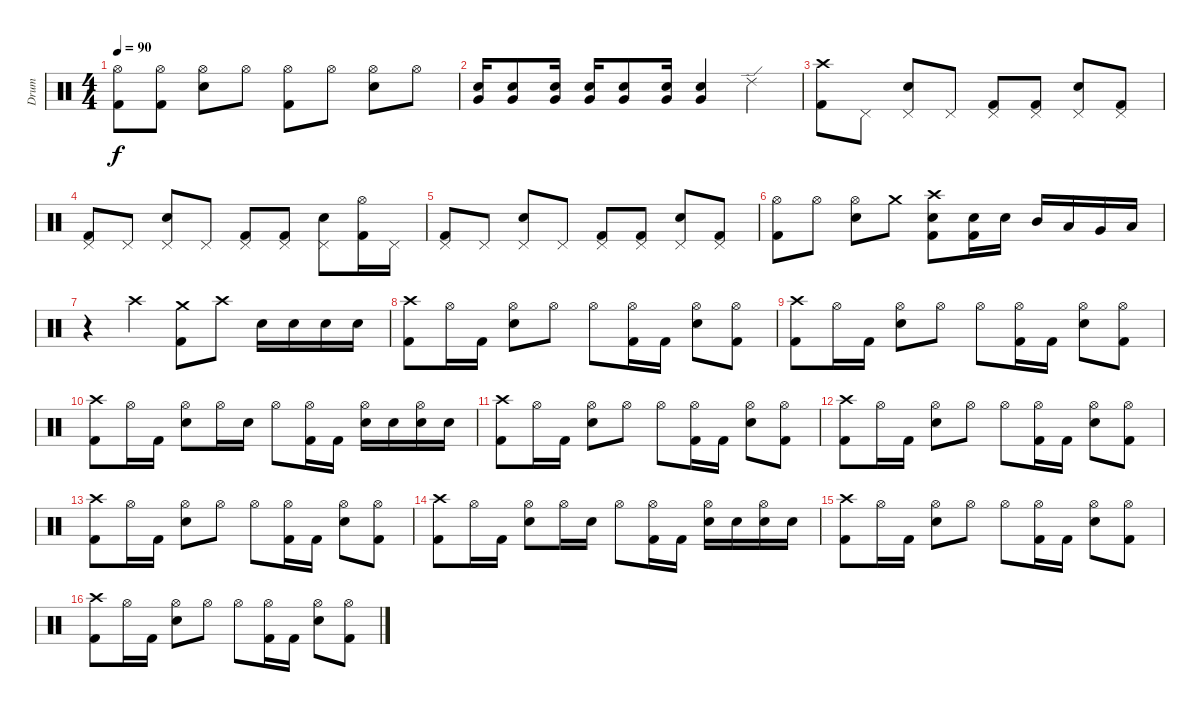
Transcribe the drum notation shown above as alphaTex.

\track ("Drum" "Drum") {instrument percussion}
\staff {score}
\articulation defaults
\ts (4 4)
\tempo 90
\clef neutral
\ks c
("Hi-Hat (open)" "Kick (hit) 2").8{dy f} ("Hi-Hat (open)" "Kick (hit) 2").8 ("Hi-Hat (open)" "Electric Snare (hit)").8 "Hi-Hat (open)".8 ("Hi-Hat (open)" "Kick (hit) 2").8 "Hi-Hat (open)".8 ("Hi-Hat (open)" "Electric Snare (hit)").8 "Hi-Hat (open)".8 |
("Electric Snare (hit)" "Very Low Tom (hit)").16 ("Electric Snare (hit)" "Very Low Tom (hit)").8 ("Electric Snare (hit)" "Very Low Tom (hit)").16 ("Electric Snare (hit)" "Very Low Tom (hit)").16 ("Electric Snare (hit)" "Very Low Tom (hit)").8 ("Electric Snare (hit)" "Very Low Tom (hit)").16 ("Electric Snare (hit)" "Very Low Tom (hit)").4 "Ride (edge) 2".4 |
\ks aminor
("Crash high (hit)" "Kick (hit) 2").8 "Pedal Hi-Hat (hit)".8 ("Pedal Hi-Hat (hit)" "Electric Snare (hit)").8 "Pedal Hi-Hat (hit)".8 ("Pedal Hi-Hat (hit)" "Kick (hit) 2").8 ("Pedal Hi-Hat (hit)" "Kick (hit) 2").8 ("Pedal Hi-Hat (hit)" "Electric Snare (hit)").8 ("Pedal Hi-Hat (hit)" "Kick (hit) 2").8 |
("Pedal Hi-Hat (hit)" "Kick (hit) 2").8 "Pedal Hi-Hat (hit)".8 ("Pedal Hi-Hat (hit)" "Electric Snare (hit)").8 "Pedal Hi-Hat (hit)".8 ("Pedal Hi-Hat (hit)" "Kick (hit) 2").8 ("Pedal Hi-Hat (hit)" "Kick (hit) 2").8 ("Pedal Hi-Hat (hit)" "Electric Snare (hit)").8 ("Hi-Hat (open)" "Kick (hit) 2").16 "Pedal Hi-Hat (hit)".16 |
("Pedal Hi-Hat (hit)" "Kick (hit) 2").8 "Pedal Hi-Hat (hit)".8 ("Pedal Hi-Hat (hit)" "Electric Snare (hit)").8 "Pedal Hi-Hat (hit)".8 ("Pedal Hi-Hat (hit)" "Kick (hit) 2").8 ("Pedal Hi-Hat (hit)" "Kick (hit) 2").8 ("Pedal Hi-Hat (hit)" "Electric Snare (hit)").8 ("Pedal Hi-Hat (hit)" "Kick (hit) 2").8 |
\ks c
("Hi-Hat (open)" "Kick (hit) 2").8 "Hi-Hat (open)".8 ("Hi-Hat (open)" "Electric Snare (hit)").8 "Crash medium (hit)".8 ("Crash high (hit)" "Electric Snare (hit)" "Kick (hit) 2").8 ("Electric Snare (hit)" "Kick (hit) 2").16 "Electric Snare (hit)".16 "Mid Tom (hit)".16 "Low Tom (hit)".16 "Very Low Tom (hit)".16 "Low Floor Tom (hit)".16 |
\ks aminor
r.4 "Crash high (hit)".4 ("Crash medium (hit)" "Kick (hit) 2").8 "Crash high (hit)".8 "Electric Snare (hit)".16 "Electric Snare (hit)".16 "Electric Snare (hit)".16 "Electric Snare (hit)".16 |
("Crash high (hit)" "Kick (hit) 2").8 "Hi-Hat (open)".16 "Kick (hit) 2".16 ("Hi-Hat (open)" "Electric Snare (hit)").8 "Hi-Hat (open)".8 "Hi-Hat (open)".8 ("Hi-Hat (open)" "Kick (hit) 2").16 "Kick (hit) 2".16 ("Hi-Hat (open)" "Electric Snare (hit)").8 ("Hi-Hat (open)" "Kick (hit) 2").8 |
("Crash high (hit)" "Kick (hit) 2").8 "Hi-Hat (open)".16 "Kick (hit) 2".16 ("Hi-Hat (open)" "Electric Snare (hit)").8 "Hi-Hat (open)".8 "Hi-Hat (open)".8 ("Hi-Hat (open)" "Kick (hit) 2").16 "Kick (hit) 2".16 ("Hi-Hat (open)" "Electric Snare (hit)").8 ("Hi-Hat (open)" "Kick (hit) 2").8 |
\ks c
("Crash high (hit)" "Kick (hit) 2").8 "Hi-Hat (open)".16 "Kick (hit) 2".16 ("Hi-Hat (open)" "Electric Snare (hit)").8 "Hi-Hat (open)".16 "Electric Snare (hit)".16 "Hi-Hat (open)".8 ("Hi-Hat (open)" "Kick (hit) 2").16 "Kick (hit) 2".16 ("Hi-Hat (open)" "Electric Snare (hit)").16 "Electric Snare (hit)".16 ("Hi-Hat (open)" "Electric Snare (hit)").16 "Electric Snare (hit)".16 |
\ks aminor
("Crash high (hit)" "Kick (hit) 2").8 "Hi-Hat (open)".16 "Kick (hit) 2".16 ("Hi-Hat (open)" "Electric Snare (hit)").8 "Hi-Hat (open)".8 "Hi-Hat (open)".8 ("Hi-Hat (open)" "Kick (hit) 2").16 "Kick (hit) 2".16 ("Hi-Hat (open)" "Electric Snare (hit)").8 ("Hi-Hat (open)" "Kick (hit) 2").8 |
("Crash high (hit)" "Kick (hit) 2").8 "Hi-Hat (open)".16 "Kick (hit) 2".16 ("Hi-Hat (open)" "Electric Snare (hit)").8 "Hi-Hat (open)".8 "Hi-Hat (open)".8 ("Hi-Hat (open)" "Kick (hit) 2").16 "Kick (hit) 2".16 ("Hi-Hat (open)" "Electric Snare (hit)").8 ("Hi-Hat (open)" "Kick (hit) 2").8 |
("Crash high (hit)" "Kick (hit) 2").8 "Hi-Hat (open)".16 "Kick (hit) 2".16 ("Hi-Hat (open)" "Electric Snare (hit)").8 "Hi-Hat (open)".8 "Hi-Hat (open)".8 ("Hi-Hat (open)" "Kick (hit) 2").16 "Kick (hit) 2".16 ("Hi-Hat (open)" "Electric Snare (hit)").8 ("Hi-Hat (open)" "Kick (hit) 2").8 |
\ks c
("Crash high (hit)" "Kick (hit) 2").8 "Hi-Hat (open)".16 "Kick (hit) 2".16 ("Hi-Hat (open)" "Electric Snare (hit)").8 "Hi-Hat (open)".16 "Electric Snare (hit)".16 "Hi-Hat (open)".8 ("Hi-Hat (open)" "Kick (hit) 2").16 "Kick (hit) 2".16 ("Hi-Hat (open)" "Electric Snare (hit)").16 "Electric Snare (hit)".16 ("Hi-Hat (open)" "Electric Snare (hit)").16 "Electric Snare (hit)".16 |
\ks aminor
("Crash high (hit)" "Kick (hit) 2").8 "Hi-Hat (open)".16 "Kick (hit) 2".16 ("Hi-Hat (open)" "Electric Snare (hit)").8 "Hi-Hat (open)".8 "Hi-Hat (open)".8 ("Hi-Hat (open)" "Kick (hit) 2").16 "Kick (hit) 2".16 ("Hi-Hat (open)" "Electric Snare (hit)").8 ("Hi-Hat (open)" "Kick (hit) 2").8 |
("Crash high (hit)" "Kick (hit) 2").8 "Hi-Hat (open)".16 "Kick (hit) 2".16 ("Hi-Hat (open)" "Electric Snare (hit)").8 "Hi-Hat (open)".8 "Hi-Hat (open)".8 ("Hi-Hat (open)" "Kick (hit) 2").16 "Kick (hit) 2".16 ("Hi-Hat (open)" "Electric Snare (hit)").8 ("Hi-Hat (open)" "Kick (hit) 2").8
